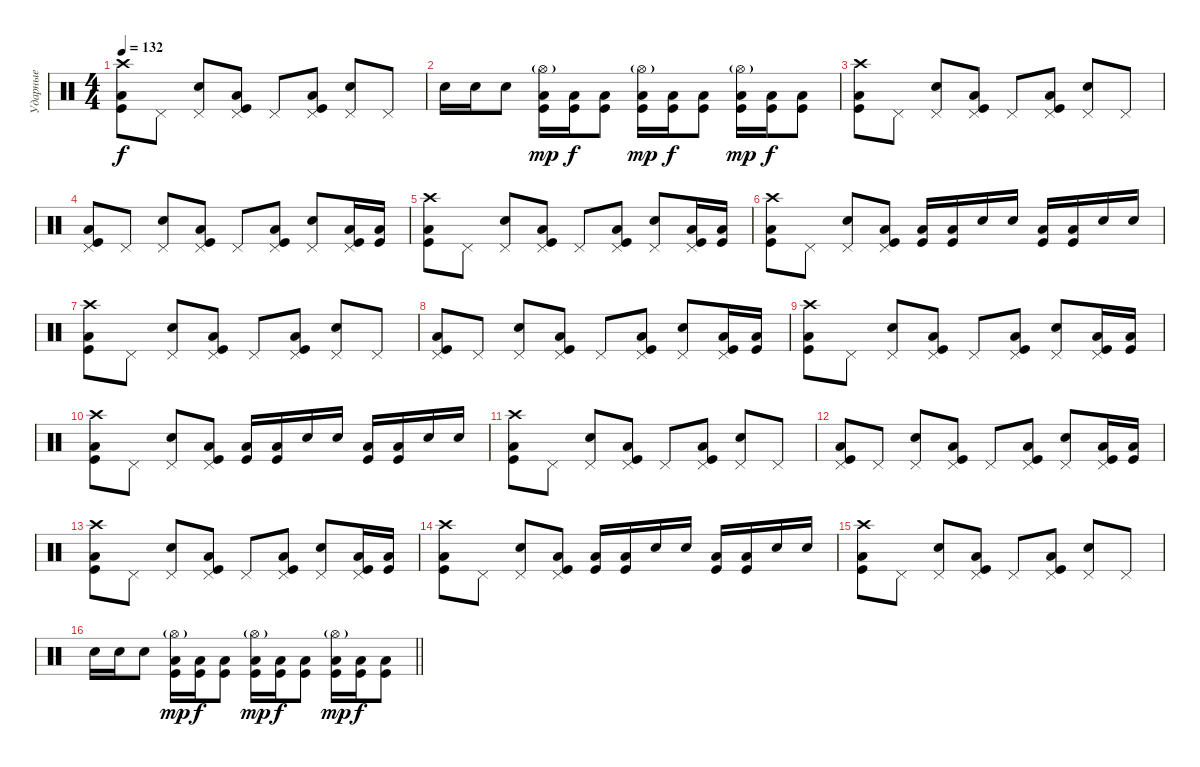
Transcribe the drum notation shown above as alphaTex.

\track ("Ударные" "Ударные") {instrument percussion}
\staff {score}
\articulation defaults
\ts (4 4)
\tempo 132
\clef neutral
\ks c
("Crash high (hit)" "Low Tom (hit)" "Kick (hit)").8{dy f} "Pedal Hi-Hat (hit)".8 ("Pedal Hi-Hat (hit)" "Snare (hit) 2").8 ("Pedal Hi-Hat (hit)" "Low Tom (hit)" "Kick (hit)").8 "Pedal Hi-Hat (hit)".8 ("Pedal Hi-Hat (hit)" "Low Tom (hit)" "Kick (hit)").8 ("Pedal Hi-Hat (hit)" "Snare (hit) 2").8 "Pedal Hi-Hat (hit)".8 |
"Electric Snare (hit)".16 "Electric Snare (hit)".16 "Electric Snare (hit)".8 ("Hi-Hat (open)"{g} "Low Tom (hit)" "Kick (hit)").16{dy mp} ("Low Tom (hit)" "Kick (hit)").16{dy f} ("Low Tom (hit)" "Kick (hit)").8 ("Hi-Hat (open)"{g} "Low Tom (hit)" "Kick (hit)").16{dy mp} ("Low Tom (hit)" "Kick (hit)").16{dy f} ("Low Tom (hit)" "Kick (hit)").8 ("Hi-Hat (open)"{g} "Low Tom (hit)" "Kick (hit)").16{dy mp} ("Low Tom (hit)" "Kick (hit)").16{dy f} ("Low Tom (hit)" "Kick (hit)").8 |
("Crash high (hit)" "Low Tom (hit)" "Kick (hit)").8 "Pedal Hi-Hat (hit)".8 ("Pedal Hi-Hat (hit)" "Snare (hit) 2").8 ("Pedal Hi-Hat (hit)" "Low Tom (hit)" "Kick (hit)").8 "Pedal Hi-Hat (hit)".8 ("Pedal Hi-Hat (hit)" "Low Tom (hit)" "Kick (hit)").8 ("Pedal Hi-Hat (hit)" "Snare (hit) 2").8 "Pedal Hi-Hat (hit)".8 |
("Pedal Hi-Hat (hit)" "Low Tom (hit)" "Kick (hit)").8 "Pedal Hi-Hat (hit)".8 ("Pedal Hi-Hat (hit)" "Snare (hit) 2").8 ("Pedal Hi-Hat (hit)" "Low Tom (hit)" "Kick (hit)").8 "Pedal Hi-Hat (hit)".8 ("Pedal Hi-Hat (hit)" "Low Tom (hit)" "Kick (hit)").8 ("Pedal Hi-Hat (hit)" "Snare (hit) 2").8 ("Pedal Hi-Hat (hit)" "Low Tom (hit)" "Kick (hit)").16 ("Low Tom (hit)" "Kick (hit)").16 |
("Crash high (hit)" "Low Tom (hit)" "Kick (hit)").8 "Pedal Hi-Hat (hit)".8 ("Pedal Hi-Hat (hit)" "Snare (hit) 2").8 ("Pedal Hi-Hat (hit)" "Low Tom (hit)" "Kick (hit)").8 "Pedal Hi-Hat (hit)".8 ("Pedal Hi-Hat (hit)" "Low Tom (hit)" "Kick (hit)").8 ("Pedal Hi-Hat (hit)" "Snare (hit) 2").8 ("Pedal Hi-Hat (hit)" "Low Tom (hit)" "Kick (hit)").16 ("Low Tom (hit)" "Kick (hit)").16 |
("Crash high (hit)" "Low Tom (hit)" "Kick (hit)").8 "Pedal Hi-Hat (hit)".8 ("Pedal Hi-Hat (hit)" "Snare (hit) 2").8 ("Pedal Hi-Hat (hit)" "Low Tom (hit)" "Kick (hit)").8 ("Low Tom (hit)" "Kick (hit)").16 ("Low Tom (hit)" "Kick (hit)").16 "Electric Snare (hit)".16 "Electric Snare (hit)".16 ("Low Tom (hit)" "Kick (hit)").16 ("Low Tom (hit)" "Kick (hit)").16 "Electric Snare (hit)".16 "Electric Snare (hit)".16 |
("Crash high (hit)" "Low Tom (hit)" "Kick (hit)").8 "Pedal Hi-Hat (hit)".8 ("Pedal Hi-Hat (hit)" "Snare (hit) 2").8 ("Pedal Hi-Hat (hit)" "Low Tom (hit)" "Kick (hit)").8 "Pedal Hi-Hat (hit)".8 ("Pedal Hi-Hat (hit)" "Low Tom (hit)" "Kick (hit)").8 ("Pedal Hi-Hat (hit)" "Snare (hit) 2").8 "Pedal Hi-Hat (hit)".8 |
("Pedal Hi-Hat (hit)" "Low Tom (hit)" "Kick (hit)").8 "Pedal Hi-Hat (hit)".8 ("Pedal Hi-Hat (hit)" "Snare (hit) 2").8 ("Pedal Hi-Hat (hit)" "Low Tom (hit)" "Kick (hit)").8 "Pedal Hi-Hat (hit)".8 ("Pedal Hi-Hat (hit)" "Low Tom (hit)" "Kick (hit)").8 ("Pedal Hi-Hat (hit)" "Snare (hit) 2").8 ("Pedal Hi-Hat (hit)" "Low Tom (hit)" "Kick (hit)").16 ("Low Tom (hit)" "Kick (hit)").16 |
("Crash high (hit)" "Low Tom (hit)" "Kick (hit)").8 "Pedal Hi-Hat (hit)".8 ("Pedal Hi-Hat (hit)" "Snare (hit) 2").8 ("Pedal Hi-Hat (hit)" "Low Tom (hit)" "Kick (hit)").8 "Pedal Hi-Hat (hit)".8 ("Pedal Hi-Hat (hit)" "Low Tom (hit)" "Kick (hit)").8 ("Pedal Hi-Hat (hit)" "Snare (hit) 2").8 ("Pedal Hi-Hat (hit)" "Low Tom (hit)" "Kick (hit)").16 ("Low Tom (hit)" "Kick (hit)").16 |
("Crash high (hit)" "Low Tom (hit)" "Kick (hit)").8 "Pedal Hi-Hat (hit)".8 ("Pedal Hi-Hat (hit)" "Snare (hit) 2").8 ("Pedal Hi-Hat (hit)" "Low Tom (hit)" "Kick (hit)").8 ("Low Tom (hit)" "Kick (hit)").16 ("Low Tom (hit)" "Kick (hit)").16 "Electric Snare (hit)".16 "Electric Snare (hit)".16 ("Low Tom (hit)" "Kick (hit)").16 ("Low Tom (hit)" "Kick (hit)").16 "Electric Snare (hit)".16 "Electric Snare (hit)".16 |
("Crash high (hit)" "Low Tom (hit)" "Kick (hit)").8 "Pedal Hi-Hat (hit)".8 ("Pedal Hi-Hat (hit)" "Snare (hit) 2").8 ("Pedal Hi-Hat (hit)" "Low Tom (hit)" "Kick (hit)").8 "Pedal Hi-Hat (hit)".8 ("Pedal Hi-Hat (hit)" "Low Tom (hit)" "Kick (hit)").8 ("Pedal Hi-Hat (hit)" "Snare (hit) 2").8 "Pedal Hi-Hat (hit)".8 |
("Pedal Hi-Hat (hit)" "Low Tom (hit)" "Kick (hit)").8 "Pedal Hi-Hat (hit)".8 ("Pedal Hi-Hat (hit)" "Snare (hit) 2").8 ("Pedal Hi-Hat (hit)" "Low Tom (hit)" "Kick (hit)").8 "Pedal Hi-Hat (hit)".8 ("Pedal Hi-Hat (hit)" "Low Tom (hit)" "Kick (hit)").8 ("Pedal Hi-Hat (hit)" "Snare (hit) 2").8 ("Pedal Hi-Hat (hit)" "Low Tom (hit)" "Kick (hit)").16 ("Low Tom (hit)" "Kick (hit)").16 |
("Crash high (hit)" "Low Tom (hit)" "Kick (hit)").8 "Pedal Hi-Hat (hit)".8 ("Pedal Hi-Hat (hit)" "Snare (hit) 2").8 ("Pedal Hi-Hat (hit)" "Low Tom (hit)" "Kick (hit)").8 "Pedal Hi-Hat (hit)".8 ("Pedal Hi-Hat (hit)" "Low Tom (hit)" "Kick (hit)").8 ("Pedal Hi-Hat (hit)" "Snare (hit) 2").8 ("Pedal Hi-Hat (hit)" "Low Tom (hit)" "Kick (hit)").16 ("Low Tom (hit)" "Kick (hit)").16 |
("Crash high (hit)" "Low Tom (hit)" "Kick (hit)").8 "Pedal Hi-Hat (hit)".8 ("Pedal Hi-Hat (hit)" "Snare (hit) 2").8 ("Pedal Hi-Hat (hit)" "Low Tom (hit)" "Kick (hit)").8 ("Low Tom (hit)" "Kick (hit)").16 ("Low Tom (hit)" "Kick (hit)").16 "Electric Snare (hit)".16 "Electric Snare (hit)".16 ("Low Tom (hit)" "Kick (hit)").16 ("Low Tom (hit)" "Kick (hit)").16 "Electric Snare (hit)".16 "Electric Snare (hit)".16 |
("Crash high (hit)" "Low Tom (hit)" "Kick (hit)").8 "Pedal Hi-Hat (hit)".8 ("Pedal Hi-Hat (hit)" "Snare (hit) 2").8 ("Pedal Hi-Hat (hit)" "Low Tom (hit)" "Kick (hit)").8 "Pedal Hi-Hat (hit)".8 ("Pedal Hi-Hat (hit)" "Low Tom (hit)" "Kick (hit)").8 ("Pedal Hi-Hat (hit)" "Snare (hit) 2").8 "Pedal Hi-Hat (hit)".8 |
\barLineRight lightlight "Electric Snare (hit)".16 "Electric Snare (hit)".16 "Electric Snare (hit)".8
("Hi-Hat (open)"{g} "Low Tom (hit)" "Kick (hit)").16{dy mp} ("Low Tom (hit)" "Kick (hit)").16{dy f} ("Low Tom (hit)" "Kick (hit)").8 ("Hi-Hat (open)"{g} "Low Tom (hit)" "Kick (hit)").16{dy mp} ("Low Tom (hit)" "Kick (hit)").16{dy f} ("Low Tom (hit)" "Kick (hit)").8 ("Hi-Hat (open)"{g} "Low Tom (hit)" "Kick (hit)").16{dy mp} ("Low Tom (hit)" "Kick (hit)").16{dy f} ("Low Tom (hit)" "Kick (hit)").8
